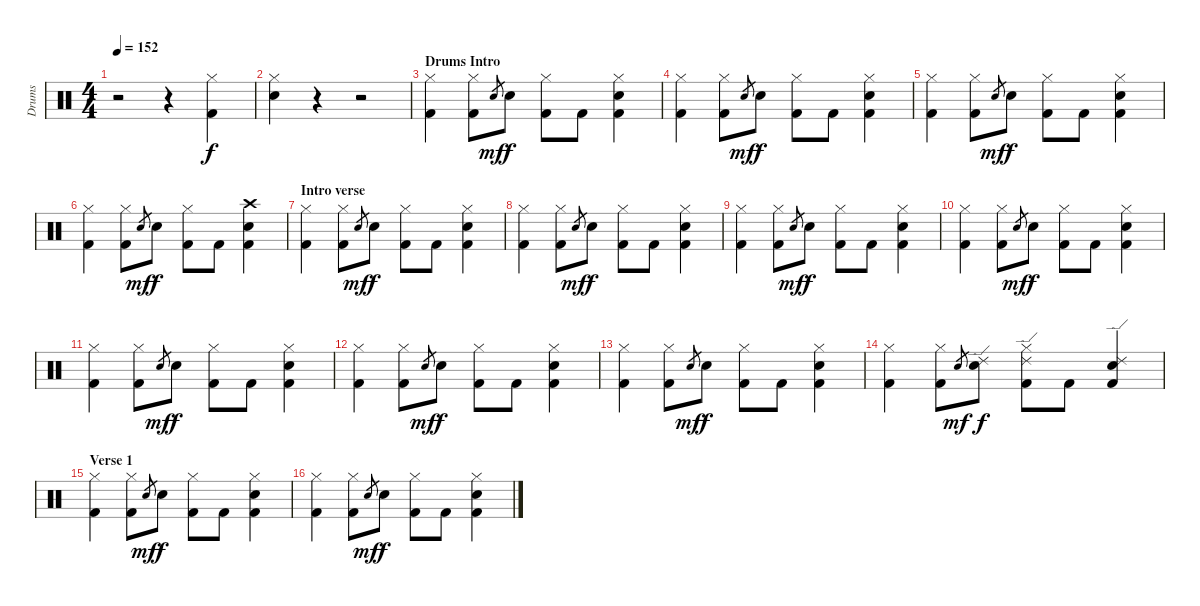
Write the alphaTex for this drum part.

\track ("Drums" "Drums") {instrument percussion}
\staff {score}
\articulation defaults
\ts (4 4)
\tempo 152
\clef neutral
\ks c
r.2{dy f} r.4 ("Hi-Hat (closed)" "Kick (hit) 2").4 |
("Hi-Hat (closed)" "Electric Snare (hit)").4 r.4 r.2 |
\section ("" "Drums Intro")
("Hi-Hat (closed)" "Kick (hit) 2").4 ("Hi-Hat (closed)" "Kick (hit) 2").8 "Electric Snare (hit)".8{gr dy mf} "Electric Snare (hit)".8{dy f} ("Hi-Hat (closed)" "Kick (hit) 2").8 "Kick (hit) 2".8 ("Hi-Hat (closed)" "Electric Snare (hit)" "Kick (hit) 2").4 |
("Hi-Hat (closed)" "Kick (hit) 2").4 ("Hi-Hat (closed)" "Kick (hit) 2").8 "Electric Snare (hit)".8{gr dy mf} "Electric Snare (hit)".8{dy f} ("Hi-Hat (closed)" "Kick (hit) 2").8 "Kick (hit) 2".8 ("Hi-Hat (closed)" "Electric Snare (hit)" "Kick (hit) 2").4 |
("Hi-Hat (closed)" "Kick (hit) 2").4 ("Hi-Hat (closed)" "Kick (hit) 2").8 "Electric Snare (hit)".8{gr dy mf} "Electric Snare (hit)".8{dy f} ("Hi-Hat (closed)" "Kick (hit) 2").8 "Kick (hit) 2".8 ("Hi-Hat (closed)" "Electric Snare (hit)" "Kick (hit) 2").4 |
("Hi-Hat (closed)" "Kick (hit) 2").4 ("Hi-Hat (closed)" "Kick (hit) 2").8 "Electric Snare (hit)".8{gr dy mf} "Electric Snare (hit)".8{dy f} ("Hi-Hat (closed)" "Kick (hit) 2").8 "Kick (hit) 2".8 ("Crash high (hit)" "Electric Snare (hit)" "Kick (hit) 2").4 |
\section ("" "Intro verse")
("Hi-Hat (closed)" "Kick (hit) 2").4 ("Hi-Hat (closed)" "Kick (hit) 2").8 "Electric Snare (hit)".8{gr dy mf} "Electric Snare (hit)".8{dy f} ("Hi-Hat (closed)" "Kick (hit) 2").8 "Kick (hit) 2".8 ("Hi-Hat (closed)" "Electric Snare (hit)" "Kick (hit) 2").4 |
("Hi-Hat (closed)" "Kick (hit) 2").4 ("Hi-Hat (closed)" "Kick (hit) 2").8 "Electric Snare (hit)".8{gr dy mf} "Electric Snare (hit)".8{dy f} ("Hi-Hat (closed)" "Kick (hit) 2").8 "Kick (hit) 2".8 ("Hi-Hat (closed)" "Electric Snare (hit)" "Kick (hit) 2").4 |
("Hi-Hat (closed)" "Kick (hit) 2").4 ("Hi-Hat (closed)" "Kick (hit) 2").8 "Electric Snare (hit)".8{gr dy mf} "Electric Snare (hit)".8{dy f} ("Hi-Hat (closed)" "Kick (hit) 2").8 "Kick (hit) 2".8 ("Hi-Hat (closed)" "Electric Snare (hit)" "Kick (hit) 2").4 |
("Hi-Hat (closed)" "Kick (hit) 2").4 ("Hi-Hat (closed)" "Kick (hit) 2").8 "Electric Snare (hit)".8{gr dy mf} "Electric Snare (hit)".8{dy f} ("Hi-Hat (closed)" "Kick (hit) 2").8 "Kick (hit) 2".8 ("Hi-Hat (closed)" "Electric Snare (hit)" "Kick (hit) 2").4 |
("Hi-Hat (closed)" "Kick (hit) 2").4 ("Hi-Hat (closed)" "Kick (hit) 2").8 "Electric Snare (hit)".8{gr dy mf} "Electric Snare (hit)".8{dy f} ("Hi-Hat (closed)" "Kick (hit) 2").8 "Kick (hit) 2".8 ("Hi-Hat (closed)" "Electric Snare (hit)" "Kick (hit) 2").4 |
("Hi-Hat (closed)" "Kick (hit) 2").4 ("Hi-Hat (closed)" "Kick (hit) 2").8 "Electric Snare (hit)".8{gr dy mf} "Electric Snare (hit)".8{dy f} ("Hi-Hat (closed)" "Kick (hit) 2").8 "Kick (hit) 2".8 ("Hi-Hat (closed)" "Electric Snare (hit)" "Kick (hit) 2").4 |
("Hi-Hat (closed)" "Kick (hit) 2").4 ("Hi-Hat (closed)" "Kick (hit) 2").8 "Electric Snare (hit)".8{gr dy mf} "Electric Snare (hit)".8{dy f} ("Hi-Hat (closed)" "Kick (hit) 2").8 "Kick (hit) 2".8 ("Hi-Hat (closed)" "Electric Snare (hit)" "Kick (hit) 2").4 |
("Hi-Hat (closed)" "Kick (hit) 2").4 ("Hi-Hat (closed)" "Kick (hit) 2").8 "Electric Snare (hit)".8{gr dy mf} ("Ride (edge) 2" "Electric Snare (hit)").8{dy f} ("Hi-Hat (closed)" "Ride (edge) 2" "Kick (hit) 2").8 "Kick (hit) 2".8 ("Ride (edge) 2" "Electric Snare (hit)" "Kick (hit) 2").4 |
\section ("" "Verse 1")
("Hi-Hat (closed)" "Kick (hit) 2").4 ("Hi-Hat (closed)" "Kick (hit) 2").8 "Electric Snare (hit)".8{gr dy mf} "Electric Snare (hit)".8{dy f} ("Hi-Hat (closed)" "Kick (hit) 2").8 "Kick (hit) 2".8 ("Hi-Hat (closed)" "Electric Snare (hit)" "Kick (hit) 2").4 |
("Hi-Hat (closed)" "Kick (hit) 2").4 ("Hi-Hat (closed)" "Kick (hit) 2").8 "Electric Snare (hit)".8{gr dy mf} "Electric Snare (hit)".8{dy f} ("Hi-Hat (closed)" "Kick (hit) 2").8 "Kick (hit) 2".8 ("Hi-Hat (closed)" "Electric Snare (hit)" "Kick (hit) 2").4
